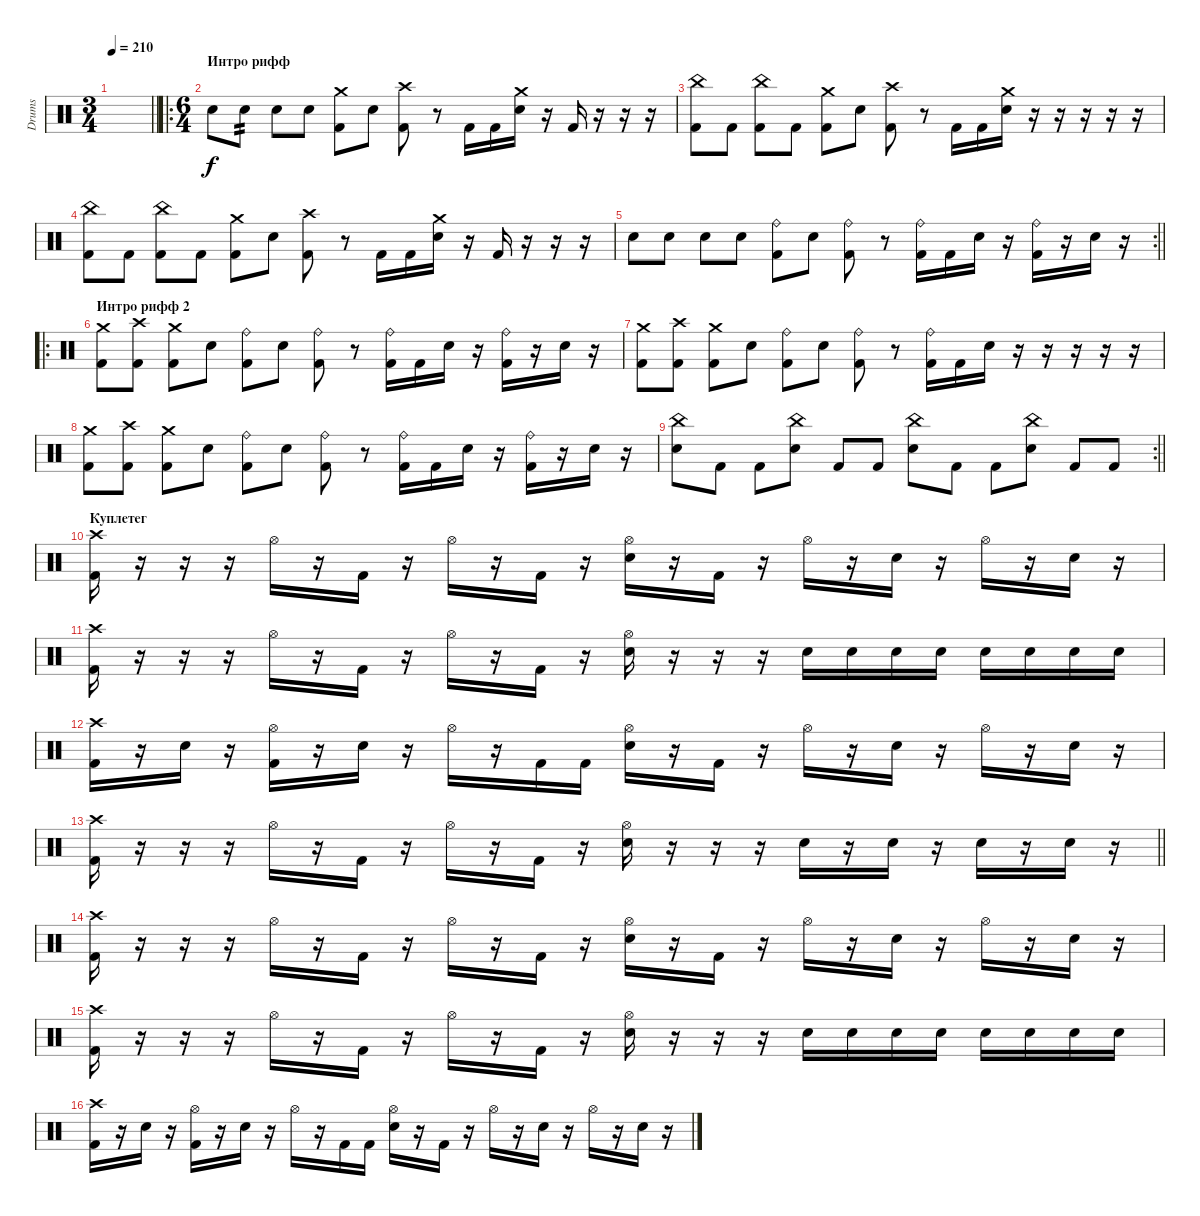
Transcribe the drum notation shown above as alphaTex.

\track ("Drums" "Drums") {instrument percussion}
\staff {score}
\articulation defaults
\ts (3 4)
\tempo 210
\clef neutral
\barLineRight lightlight
\ks c
|
\ro
\ts (6 4)
\section ("" "Интро рифф")
"Electric Snare (hit)".8 "Electric Snare (hit)".8{tp 2} "Electric Snare (hit)".8 "Electric Snare (hit)".8 ("Crash medium (hit)" "Kick (hit) 2").8 "Electric Snare (hit)".8 ("Crash high (hit)" "Kick (hit) 2").8 r.8 "Kick (hit) 2".16 "Kick (hit) 2".16 ("Crash medium (hit)" "Electric Snare (hit)").16 r.16 "Kick (hit) 2".16 r.16 r.16 r.16 |
("China (hit)" "Kick (hit) 2").8 "Kick (hit) 2".8 ("China (hit)" "Kick (hit) 2").8 "Kick (hit) 2".8 ("Crash medium (hit)" "Kick (hit) 2").8 "Electric Snare (hit)".8 ("Crash high (hit)" "Kick (hit) 2").8 r.8 "Kick (hit) 2".16 "Kick (hit) 2".16 ("Crash medium (hit)" "Electric Snare (hit)").16 r.16 r.16 r.16 r.16 r.16 |
("China (hit)" "Kick (hit) 2").8 "Kick (hit) 2".8 ("China (hit)" "Kick (hit) 2").8 "Kick (hit) 2".8 ("Crash medium (hit)" "Kick (hit) 2").8 "Electric Snare (hit)".8 ("Crash high (hit)" "Kick (hit) 2").8 r.8 "Kick (hit) 2".16 "Kick (hit) 2".16 ("Crash medium (hit)" "Electric Snare (hit)").16 r.16 "Kick (hit) 2".16 r.16 r.16 r.16 |
\rc 2
\barLineRight lightlight "Electric Snare (hit)".8 "Electric Snare (hit)".8 "Electric Snare (hit)".8 "Electric Snare (hit)".8
("Ride (bell)" "Kick (hit) 2").8 "Electric Snare (hit)".8 ("Ride (bell)" "Kick (hit) 2").8 r.8 ("Ride (bell)" "Kick (hit) 2").16 "Kick (hit) 2".16 "Electric Snare (hit)".16 r.16 ("Ride (bell)" "Kick (hit) 2").16 r.16 "Electric Snare (hit)".16 r.16 |
\ro
\section ("" "Интро рифф 2")
("Crash medium (hit)" "Kick (hit) 2").8 ("Crash high (hit)" "Kick (hit) 2").8 ("Crash medium (hit)" "Kick (hit) 2").8 "Electric Snare (hit)".8 ("Ride (bell)" "Kick (hit) 2").8 "Electric Snare (hit)".8 ("Ride (bell)" "Kick (hit) 2").8 r.8 ("Ride (bell)" "Kick (hit) 2").16 "Kick (hit) 2".16 "Electric Snare (hit)".16 r.16 ("Ride (bell)" "Kick (hit) 2").16 r.16 "Electric Snare (hit)".16 r.16 |
("Crash medium (hit)" "Kick (hit) 2").8 ("Crash high (hit)" "Kick (hit) 2").8 ("Crash medium (hit)" "Kick (hit) 2").8 "Electric Snare (hit)".8 ("Ride (bell)" "Kick (hit) 2").8 "Electric Snare (hit)".8 ("Ride (bell)" "Kick (hit) 2").8 r.8 ("Ride (bell)" "Kick (hit) 2").16 "Kick (hit) 2".16 "Electric Snare (hit)".16 r.16 r.16 r.16 r.16 r.16 |
("Crash medium (hit)" "Kick (hit) 2").8 ("Crash high (hit)" "Kick (hit) 2").8 ("Crash medium (hit)" "Kick (hit) 2").8 "Electric Snare (hit)".8 ("Ride (bell)" "Kick (hit) 2").8 "Electric Snare (hit)".8 ("Ride (bell)" "Kick (hit) 2").8 r.8 ("Ride (bell)" "Kick (hit) 2").16 "Kick (hit) 2".16 "Electric Snare (hit)".16 r.16 ("Ride (bell)" "Kick (hit) 2").16 r.16 "Electric Snare (hit)".16 r.16 |
\rc 2
\barLineRight lightlight
("China (hit)" "Electric Snare (hit)").8 "Kick (hit) 2".8 "Kick (hit) 2".8 ("China (hit)" "Electric Snare (hit)").8 "Kick (hit) 2".8 "Kick (hit) 2".8 ("China (hit)" "Electric Snare (hit)").8 "Kick (hit) 2".8 "Kick (hit) 2".8 ("China (hit)" "Electric Snare (hit)").8 "Kick (hit) 2".8 "Kick (hit) 2".8 |
\section ("" "Куплетег")
("Crash high (hit)" "Kick (hit) 2").16 r.16 r.16 r.16 "Hi-Hat (open)".16 r.16 "Kick (hit) 2".16 r.16 "Hi-Hat (open)".16 r.16 "Kick (hit) 2".16 r.16 ("Hi-Hat (open)" "Electric Snare (hit)").16 r.16 "Kick (hit) 2".16 r.16 "Hi-Hat (open)".16 r.16 "Electric Snare (hit)".16 r.16 "Hi-Hat (open)".16 r.16 "Electric Snare (hit)".16 r.16 |
("Crash high (hit)" "Kick (hit) 2").16 r.16 r.16 r.16 "Hi-Hat (open)".16 r.16 "Kick (hit) 2".16 r.16 "Hi-Hat (open)".16 r.16 "Kick (hit) 2".16 r.16 ("Hi-Hat (open)" "Electric Snare (hit)").16 r.16 r.16 r.16 "Electric Snare (hit)".16 "Electric Snare (hit)".16 "Electric Snare (hit)".16 "Electric Snare (hit)".16 "Electric Snare (hit)".16 "Electric Snare (hit)".16 "Electric Snare (hit)".16 "Electric Snare (hit)".16 |
("Crash high (hit)" "Kick (hit) 2").16 r.16 "Electric Snare (hit)".16 r.16 ("Hi-Hat (open)" "Kick (hit) 2").16 r.16 "Electric Snare (hit)".16 r.16 "Hi-Hat (open)".16 r.16 "Kick (hit) 2".16 "Kick (hit) 2".16 ("Hi-Hat (open)" "Electric Snare (hit)").16 r.16 "Kick (hit) 2".16 r.16 "Hi-Hat (open)".16 r.16 "Electric Snare (hit)".16 r.16 "Hi-Hat (open)".16 r.16 "Electric Snare (hit)".16 r.16 |
\barLineRight lightlight
("Crash high (hit)" "Kick (hit) 2").16 r.16 r.16 r.16 "Hi-Hat (open)".16 r.16 "Kick (hit) 2".16 r.16 "Hi-Hat (open)".16 r.16 "Kick (hit) 2".16 r.16 ("Hi-Hat (open)" "Electric Snare (hit)").16 r.16 r.16 r.16 "Electric Snare (hit)".16 r.16 "Electric Snare (hit)".16 r.16 "Electric Snare (hit)".16 r.16 "Electric Snare (hit)".16 r.16 |
\section ("" "")
("Crash high (hit)" "Kick (hit) 2").16 r.16 r.16 r.16 "Hi-Hat (open)".16 r.16 "Kick (hit) 2".16 r.16 "Hi-Hat (open)".16 r.16 "Kick (hit) 2".16 r.16 ("Hi-Hat (open)" "Electric Snare (hit)").16 r.16 "Kick (hit) 2".16 r.16 "Hi-Hat (open)".16 r.16 "Electric Snare (hit)".16 r.16 "Hi-Hat (open)".16 r.16 "Electric Snare (hit)".16 r.16 |
("Crash high (hit)" "Kick (hit) 2").16 r.16 r.16 r.16 "Hi-Hat (open)".16 r.16 "Kick (hit) 2".16 r.16 "Hi-Hat (open)".16 r.16 "Kick (hit) 2".16 r.16 ("Hi-Hat (open)" "Electric Snare (hit)").16 r.16 r.16 r.16 "Electric Snare (hit)".16 "Electric Snare (hit)".16 "Electric Snare (hit)".16 "Electric Snare (hit)".16 "Electric Snare (hit)".16 "Electric Snare (hit)".16 "Electric Snare (hit)".16 "Electric Snare (hit)".16 |
("Crash high (hit)" "Kick (hit) 2").16 r.16 "Electric Snare (hit)".16 r.16 ("Hi-Hat (open)" "Kick (hit) 2").16 r.16 "Electric Snare (hit)".16 r.16 "Hi-Hat (open)".16 r.16 "Kick (hit) 2".16 "Kick (hit) 2".16 ("Hi-Hat (open)" "Electric Snare (hit)").16 r.16 "Kick (hit) 2".16 r.16 "Hi-Hat (open)".16 r.16 "Electric Snare (hit)".16 r.16 "Hi-Hat (open)".16 r.16 "Electric Snare (hit)".16 r.16
